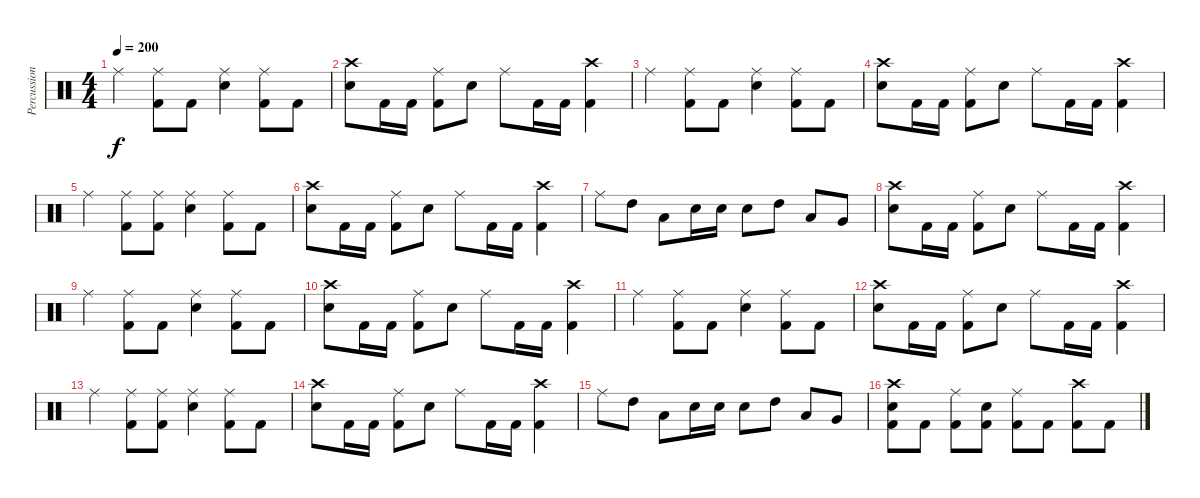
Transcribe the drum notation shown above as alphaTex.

\track ("Percussion" "Percussion") {instrument percussion}
\staff {score}
\articulation defaults
\ts (4 4)
\tempo 200
\clef neutral
\ks c "Ride (middle)".4{dy f}
("Ride (middle)" "Kick (hit) 2").8 "Kick (hit) 2".8 ("Ride (middle)" "Snare (hit) 2").4 ("Ride (middle)" "Kick (hit) 2").8 "Kick (hit) 2".8 |
("Crash high (hit)" "Snare (hit) 2").8 "Kick (hit) 2".16 "Kick (hit) 2".16 ("Ride (middle)" "Kick (hit) 2").8 "Snare (hit) 2".8 "Ride (middle)".8 "Kick (hit) 2".16 "Kick (hit) 2".16 ("Crash high (hit)" "Kick (hit) 2").4 |
"Ride (middle)".4 ("Ride (middle)" "Kick (hit) 2").8 "Kick (hit) 2".8 ("Ride (middle)" "Snare (hit) 2").4 ("Ride (middle)" "Kick (hit) 2").8 "Kick (hit) 2".8 |
("Crash high (hit)" "Snare (hit) 2").8 "Kick (hit) 2".16 "Kick (hit) 2".16 ("Ride (middle)" "Kick (hit) 2").8 "Snare (hit) 2".8 "Ride (middle)".8 "Kick (hit) 2".16 "Kick (hit) 2".16 ("Crash high (hit)" "Kick (hit) 2").4 |
"Ride (middle)".4 ("Ride (middle)" "Kick (hit) 2").8 ("Ride (middle)" "Kick (hit) 2").8 ("Ride (middle)" "Snare (hit) 2").4 ("Ride (middle)" "Kick (hit) 2").8 "Kick (hit) 2".8 |
("Crash high (hit)" "Snare (hit) 2").8 "Kick (hit) 2".16 "Kick (hit) 2".16 ("Ride (middle)" "Kick (hit) 2").8 "Snare (hit) 2".8 "Ride (middle)".8 "Kick (hit) 2".16 "Kick (hit) 2".16 ("Crash high (hit)" "Kick (hit) 2").4 |
"Ride (middle)".8 "High Tom (hit)".8 "Low Tom (hit)".8 "Snare (hit) 2".16 "Snare (hit) 2".16 "Snare (hit) 2".8 "High Tom (hit)".8 "Low Tom (hit)".8 "Very Low Tom (hit)".8 |
("Crash high (hit)" "Snare (hit) 2").8 "Kick (hit) 2".16 "Kick (hit) 2".16 ("Ride (middle)" "Kick (hit) 2").8 "Snare (hit) 2".8 "Ride (middle)".8 "Kick (hit) 2".16 "Kick (hit) 2".16 ("Crash high (hit)" "Kick (hit) 2").4 |
"Ride (middle)".4 ("Ride (middle)" "Kick (hit) 2").8 "Kick (hit) 2".8 ("Ride (middle)" "Snare (hit) 2").4 ("Ride (middle)" "Kick (hit) 2").8 "Kick (hit) 2".8 |
("Crash high (hit)" "Snare (hit) 2").8 "Kick (hit) 2".16 "Kick (hit) 2".16 ("Ride (middle)" "Kick (hit) 2").8 "Snare (hit) 2".8 "Ride (middle)".8 "Kick (hit) 2".16 "Kick (hit) 2".16 ("Crash high (hit)" "Kick (hit) 2").4 |
"Ride (middle)".4 ("Ride (middle)" "Kick (hit) 2").8 "Kick (hit) 2".8 ("Ride (middle)" "Snare (hit) 2").4 ("Ride (middle)" "Kick (hit) 2").8 "Kick (hit) 2".8 |
("Crash high (hit)" "Snare (hit) 2").8 "Kick (hit) 2".16 "Kick (hit) 2".16 ("Ride (middle)" "Kick (hit) 2").8 "Snare (hit) 2".8 "Ride (middle)".8 "Kick (hit) 2".16 "Kick (hit) 2".16 ("Crash high (hit)" "Kick (hit) 2").4 |
"Ride (middle)".4 ("Ride (middle)" "Kick (hit) 2").8 ("Ride (middle)" "Kick (hit) 2").8 ("Ride (middle)" "Snare (hit) 2").4 ("Ride (middle)" "Kick (hit) 2").8 "Kick (hit) 2".8 |
("Crash high (hit)" "Snare (hit) 2").8 "Kick (hit) 2".16 "Kick (hit) 2".16 ("Ride (middle)" "Kick (hit) 2").8 "Snare (hit) 2".8 "Ride (middle)".8 "Kick (hit) 2".16 "Kick (hit) 2".16 ("Crash high (hit)" "Kick (hit) 2").4 |
"Ride (middle)".8 "High Tom (hit)".8 "Low Tom (hit)".8 "Snare (hit) 2".16 "Snare (hit) 2".16 "Snare (hit) 2".8 "High Tom (hit)".8 "Low Tom (hit)".8 "Very Low Tom (hit)".8 |
("Crash high (hit)" "Snare (hit) 2" "Kick (hit) 2").8 "Kick (hit) 2".8 ("Ride (middle)" "Kick (hit) 2").8 ("Snare (hit) 2" "Kick (hit) 2").8 ("Ride (middle)" "Kick (hit) 2").8 "Kick (hit) 2".8 ("Crash high (hit)" "Kick (hit) 2").8 "Kick (hit) 2".8
